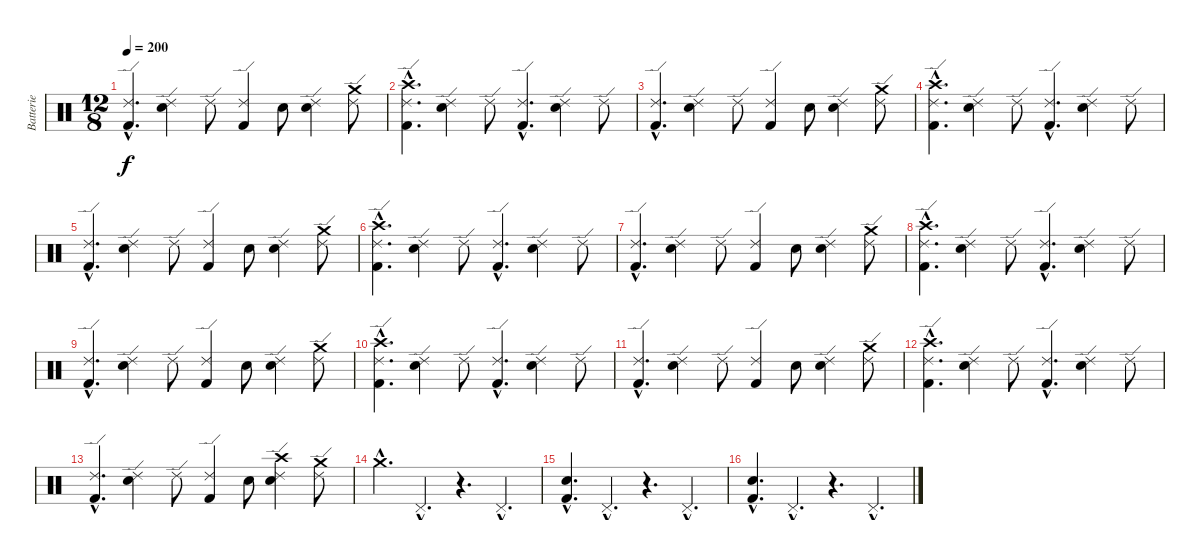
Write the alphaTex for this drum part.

\track ("Batterie" "Batterie") {instrument percussion}
\staff {score}
\articulation defaults
\ts (12 8)
\tempo 200
\clef neutral
\ks c
("Ride (edge) 2"{hac} "Kick (hit) 2"{hac}).4{d dy f} ("Ride (edge) 2" "Snare (hit) 2").4 "Ride (edge) 2".8 ("Ride (edge) 2" "Kick (hit) 2").4 "Snare (hit) 2".8 ("Ride (edge) 2" "Snare (hit) 2").4 ("Crash medium (hit)" "Ride (edge) 2").8 |
("Crash high (hit)"{hac} "Ride (edge) 2"{hac} "Kick (hit) 2"{hac}).4{d} ("Ride (edge) 2" "Snare (hit) 2").4 "Ride (edge) 2".8 ("Ride (edge) 2"{hac} "Kick (hit) 2"{hac}).4{d} ("Ride (edge) 2" "Snare (hit) 2").4 "Ride (edge) 2".8 |
("Ride (edge) 2"{hac} "Kick (hit) 2"{hac}).4{d} ("Ride (edge) 2" "Snare (hit) 2").4 "Ride (edge) 2".8 ("Ride (edge) 2" "Kick (hit) 2").4 "Snare (hit) 2".8 ("Ride (edge) 2" "Snare (hit) 2").4 ("Crash medium (hit)" "Ride (edge) 2").8 |
("Crash high (hit)"{hac} "Ride (edge) 2"{hac} "Kick (hit) 2"{hac}).4{d} ("Ride (edge) 2" "Snare (hit) 2").4 "Ride (edge) 2".8 ("Ride (edge) 2"{hac} "Kick (hit) 2"{hac}).4{d} ("Ride (edge) 2" "Snare (hit) 2").4 "Ride (edge) 2".8 |
("Ride (edge) 2"{hac} "Kick (hit) 2"{hac}).4{d} ("Ride (edge) 2" "Snare (hit) 2").4 "Ride (edge) 2".8 ("Ride (edge) 2" "Kick (hit) 2").4 "Snare (hit) 2".8 ("Ride (edge) 2" "Snare (hit) 2").4 ("Crash medium (hit)" "Ride (edge) 2").8 |
("Crash high (hit)"{hac} "Ride (edge) 2"{hac} "Kick (hit) 2"{hac}).4{d} ("Ride (edge) 2" "Snare (hit) 2").4 "Ride (edge) 2".8 ("Ride (edge) 2"{hac} "Kick (hit) 2"{hac}).4{d} ("Ride (edge) 2" "Snare (hit) 2").4 "Ride (edge) 2".8 |
("Ride (edge) 2"{hac} "Kick (hit) 2"{hac}).4{d} ("Ride (edge) 2" "Snare (hit) 2").4 "Ride (edge) 2".8 ("Ride (edge) 2" "Kick (hit) 2").4 "Snare (hit) 2".8 ("Ride (edge) 2" "Snare (hit) 2").4 ("Crash medium (hit)" "Ride (edge) 2").8 |
("Crash high (hit)"{hac} "Ride (edge) 2"{hac} "Kick (hit) 2"{hac}).4{d} ("Ride (edge) 2" "Snare (hit) 2").4 "Ride (edge) 2".8 ("Ride (edge) 2"{hac} "Kick (hit) 2"{hac}).4{d} ("Ride (edge) 2" "Snare (hit) 2").4 "Ride (edge) 2".8 |
("Ride (edge) 2"{hac} "Kick (hit) 2"{hac}).4{d} ("Ride (edge) 2" "Snare (hit) 2").4 "Ride (edge) 2".8 ("Ride (edge) 2" "Kick (hit) 2").4 "Snare (hit) 2".8 ("Ride (edge) 2" "Snare (hit) 2").4 ("Crash medium (hit)" "Ride (edge) 2").8 |
("Crash high (hit)"{hac} "Ride (edge) 2"{hac} "Kick (hit) 2"{hac}).4{d} ("Ride (edge) 2" "Snare (hit) 2").4 "Ride (edge) 2".8 ("Ride (edge) 2"{hac} "Kick (hit) 2"{hac}).4{d} ("Ride (edge) 2" "Snare (hit) 2").4 "Ride (edge) 2".8 |
("Ride (edge) 2"{hac} "Kick (hit) 2"{hac}).4{d} ("Ride (edge) 2" "Snare (hit) 2").4 "Ride (edge) 2".8 ("Ride (edge) 2" "Kick (hit) 2").4 "Snare (hit) 2".8 ("Ride (edge) 2" "Snare (hit) 2").4 ("Crash medium (hit)" "Ride (edge) 2").8 |
("Crash high (hit)"{hac} "Ride (edge) 2"{hac} "Kick (hit) 2"{hac}).4{d} ("Ride (edge) 2" "Snare (hit) 2").4 "Ride (edge) 2".8 ("Ride (edge) 2"{hac} "Kick (hit) 2"{hac}).4{d} ("Ride (edge) 2" "Snare (hit) 2").4 "Ride (edge) 2".8 |
("Ride (edge) 2"{hac} "Kick (hit) 2"{hac}).4{d} ("Ride (edge) 2" "Snare (hit) 2").4 "Ride (edge) 2".8 ("Ride (edge) 2" "Kick (hit) 2").4 "Snare (hit) 2".8 ("Crash high (hit)" "Ride (edge) 2" "Snare (hit) 2").4 ("Crash medium (hit)" "Ride (edge) 2").8 |
"Crash medium (hit)"{hac}.4{d} "Pedal Hi-Hat (hit)"{hac}.4{d} r.4{d} "Pedal Hi-Hat (hit)"{hac}.4{d} |
("Metronome (bell)"{hac} "Kick (hit) 2"{hac}).4{d} "Pedal Hi-Hat (hit)"{hac}.4{d} r.4{d} "Pedal Hi-Hat (hit)"{hac}.4{d} |
("Metronome (bell)"{hac} "Kick (hit) 2"{hac}).4{d} "Pedal Hi-Hat (hit)"{hac}.4{d} r.4{d} "Pedal Hi-Hat (hit)"{hac}.4{d}
